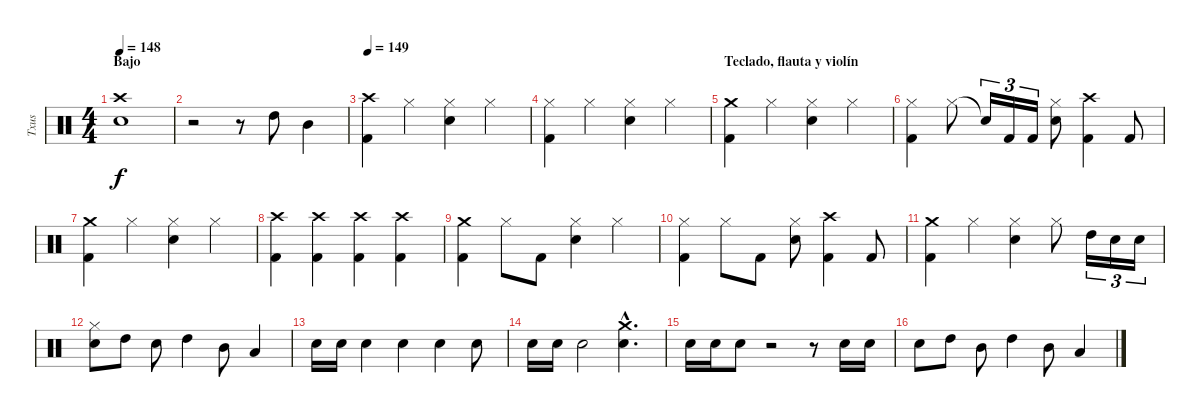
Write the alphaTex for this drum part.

\track ("Txus" "Txus") {instrument percussion}
\staff {score}
\articulation defaults
\ts (4 4)
\section ("" "Bajo")
\tempo 148
\clef neutral
\ks c
("Electric Snare (hit)" "Crash high (hit)").1{dy f} |
r.2 r.8 "High Tom (hit)".8 "Mid Tom (hit)".4 |
\tempo 149
("Kick (hit) 2" "Crash high (hit)").4 "Hi-Hat (closed)".4 ("Electric Snare (hit)" "Hi-Hat (closed)").4 "Hi-Hat (closed)".4 |
("Kick (hit) 2" "Hi-Hat (closed)").4 "Hi-Hat (closed)".4 ("Electric Snare (hit)" "Hi-Hat (closed)").4 "Hi-Hat (closed)".4 |
\section ("" "Teclado, flauta y violín")
("Kick (hit) 2" "Crash medium (hit)").4 "Hi-Hat (closed)".4 ("Electric Snare (hit)" "Hi-Hat (closed)").4 "Hi-Hat (closed)".4 |
("Kick (hit) 2" "Hi-Hat (closed)").4 "Hi-Hat (closed)".8 "Snare (hit)"{t}.16{tu (3 2)} "Kick (hit) 2".16{tu (3 2)} "Kick (hit) 2".16{tu (3 2)} ("Electric Snare (hit)" "Hi-Hat (closed)").8 ("Kick (hit) 2" "Crash high (hit)").4 "Kick (hit) 2".8 |
("Kick (hit) 2" "Crash medium (hit)").4 "Hi-Hat (closed)".4 ("Electric Snare (hit)" "Hi-Hat (closed)").4 "Hi-Hat (closed)".4 |
("Kick (hit) 2" "Crash high (hit)").4 ("Kick (hit) 2" "Crash high (hit)").4 ("Kick (hit) 2" "Crash high (hit)").4 ("Kick (hit) 2" "Crash high (hit)").4 |
("Kick (hit) 2" "Crash medium (hit)").4 "Hi-Hat (closed)".8 "Kick (hit) 2".8 ("Electric Snare (hit)" "Hi-Hat (closed)").4 "Hi-Hat (closed)".4 |
("Kick (hit) 2" "Hi-Hat (closed)").4 "Hi-Hat (closed)".8 "Kick (hit) 2".8 ("Electric Snare (hit)" "Hi-Hat (closed)").8 ("Kick (hit) 2" "Crash high (hit)").4 "Kick (hit) 2".8 |
("Kick (hit) 2" "Crash medium (hit)").4 "Hi-Hat (closed)".4 ("Electric Snare (hit)" "Hi-Hat (closed)").4 "Hi-Hat (closed)".8 "High Tom (hit)".16{tu (3 2)} "Electric Snare (hit)".16{tu (3 2)} "Electric Snare (hit)".16{tu (3 2)} |
("Electric Snare (hit)" "Hi-Hat (closed)").8 "High Tom (hit)".8 "Electric Snare (hit)".8 "High Tom (hit)".4 "Mid Tom (hit)".8 "Low Tom (hit)".4 |
"Electric Snare (hit)".16 "Electric Snare (hit)".16 "Electric Snare (hit)".4 "Electric Snare (hit)".4 "Electric Snare (hit)".4 "Electric Snare (hit)".8 |
"Electric Snare (hit)".16 "Electric Snare (hit)".16 "Electric Snare (hit)".2 ("Electric Snare (hit)"{hac} "Crash medium (hit)"{hac}).4{d} |
"Electric Snare (hit)".16 "Electric Snare (hit)".16 "Electric Snare (hit)".8 r.2 r.8 "Electric Snare (hit)".16 "Electric Snare (hit)".16 |
"Electric Snare (hit)".8 "High Tom (hit)".8 "Mid Tom (hit)".8 "High Tom (hit)".4 "Mid Tom (hit)".8 "Low Tom (hit)".4
